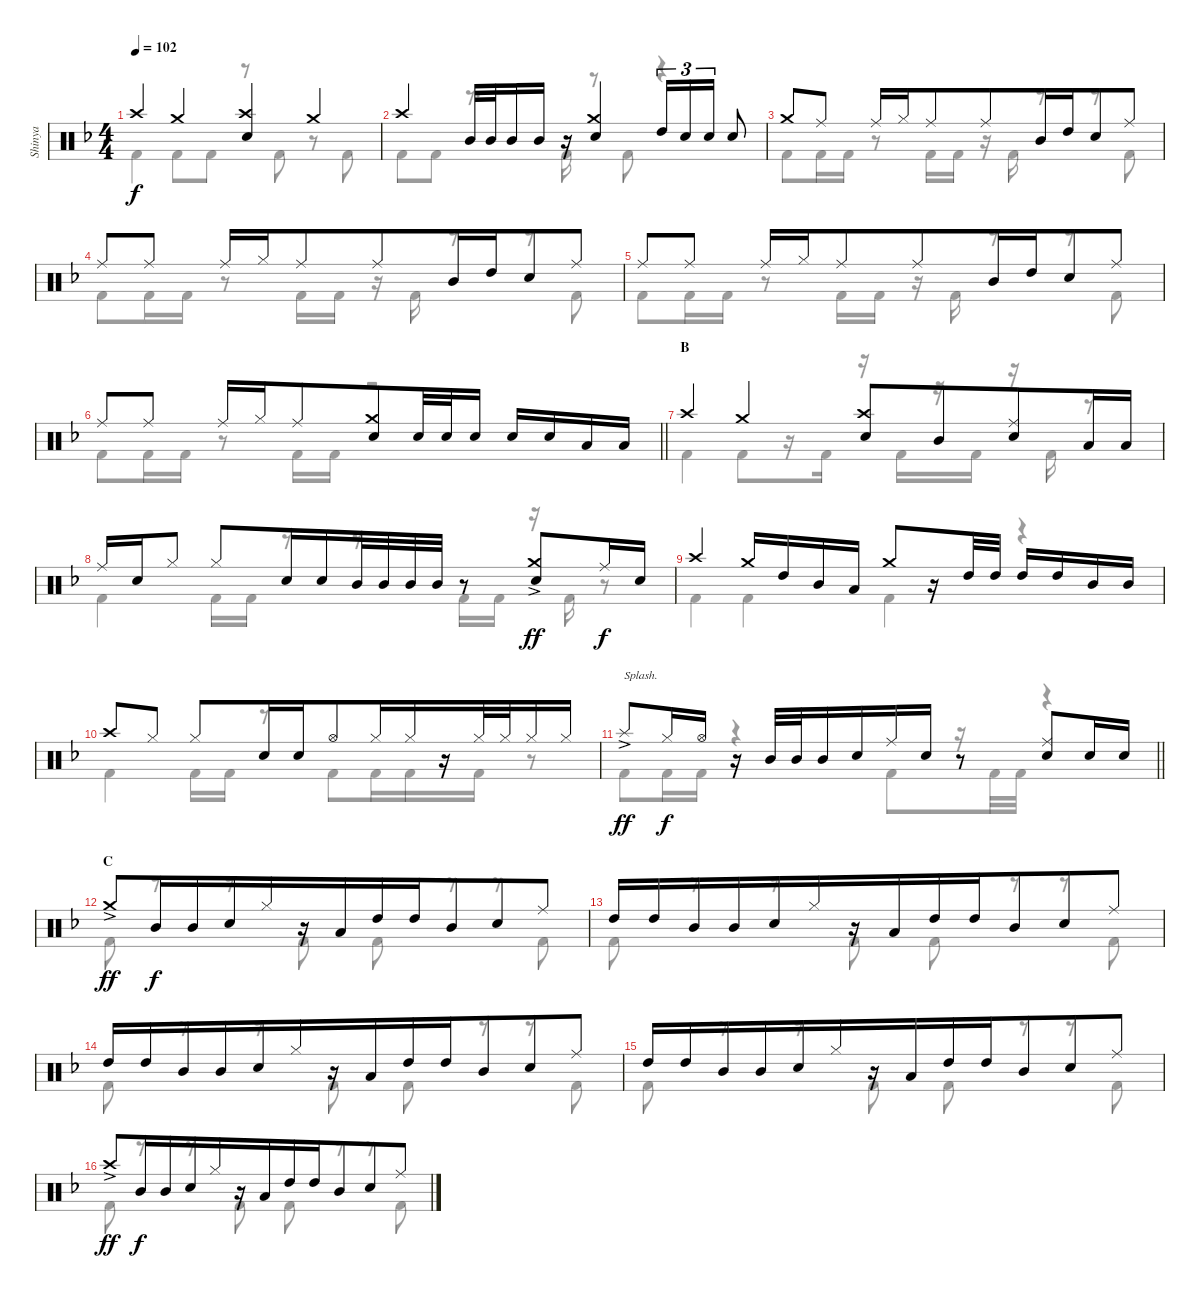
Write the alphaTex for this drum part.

\track ("Shinya" "Shinya") {mute instrument percussion}
\staff {score}
\articulation defaults
\voice
\ts (4 4)
\tempo 102
\clef neutral
\ks f "Crash high (hit)".4{dy f} "Crash medium (hit)".4
("Crash high (hit)" "Snare (hit) 2").4{beam merge} "Crash medium (hit)".4 |
"Crash high (hit)".4 "Mid Tom (hit)".32 "Mid Tom (hit)".32 "Mid Tom (hit)".16 "Mid Tom (hit)".16{beam merge} r.16{beam merge} ("Crash medium (hit)" "Snare (hit) 2").4{beam merge} "High Tom (hit)".16{tu (3 2)} "Snare (hit) 2".16{tu (3 2) beam merge} "Snare (hit) 2".16{tu (3 2)} "Snare (hit) 2".8 |
"Crash medium (hit)".8 "Ride (middle)".8 "Ride (middle)".16 "Hi-Hat (closed)".16{beam merge} "Ride (middle)".8{beam merge} "Ride (middle)".8{beam merge} "Mid Tom (hit)".16 "High Tom (hit)".16{beam merge} "Snare (hit) 2".8 "Ride (middle)".8 |
"Ride (middle)".8 "Ride (middle)".8 "Ride (middle)".16 "Hi-Hat (closed)".16{beam merge} "Ride (middle)".8{beam merge} "Ride (middle)".8{beam merge} "Mid Tom (hit)".16 "High Tom (hit)".16{beam merge} "Snare (hit) 2".8 "Ride (middle)".8 |
"Ride (middle)".8 "Ride (middle)".8 "Ride (middle)".16 "Hi-Hat (closed)".16{beam merge} "Ride (middle)".8{beam merge} "Ride (middle)".8{beam merge} "Mid Tom (hit)".16 "High Tom (hit)".16{beam merge} "Snare (hit) 2".8 "Ride (middle)".8 |
\barLineRight lightlight "Ride (middle)".8 "Ride (middle)".8 "Ride (middle)".16 "Hi-Hat (closed)".16{beam merge} "Ride (middle)".8{beam merge}
("Crash medium (hit)" "Snare (hit) 2").8 "Snare (hit) 2".32{beam merge} "Snare (hit) 2".32 "Snare (hit) 2".16 "Snare (hit) 2".16{beam merge} "Snare (hit) 2".16 "Low Tom (hit)".16 "Low Tom (hit)".16 |
\section ("" "B")
"Crash high (hit)".4 "Crash medium (hit)".4{beam merge} ("Crash high (hit)" "Snare (hit) 2").8 "Mid Tom (hit)".8{beam merge} ("Ride (middle)" "Snare (hit) 2").8 "Low Tom (hit)".16 "Low Tom (hit)".16 |
"Ride (middle)".16 "Snare (hit) 2".16 "Hi-Hat (closed)".8 "Hi-Hat (closed)".8 "Snare (hit) 2".16{beam merge} "Snare (hit) 2".16{beam merge} "Mid Tom (hit)".32 "Mid Tom (hit)".32{beam merge} "Mid Tom (hit)".32 "Mid Tom (hit)".32 r.8 ("Crash medium (hit)"{ac} "Snare (hit) 2").8{dy ff} "Ride (middle)".16{dy f} "Snare (hit) 2".16 |
"Crash high (hit)".4 "Crash medium (hit)".16 "High Tom (hit)".16{beam merge} "Mid Tom (hit)".16{beam merge} "Low Tom (hit)".16 "Crash medium (hit)".8{beam merge} r.16 "High Tom (hit)".32 "High Tom (hit)".32 "High Tom (hit)".16 "High Tom (hit)".16 "Mid Tom (hit)".16{beam merge} "Mid Tom (hit)".16 |
"Crash high (hit)".8 "Hi-Hat (closed)".8 "Hi-Hat (closed)".8{beam merge} "Snare (hit) 2".16{beam merge} "Snare (hit) 2".16{beam merge} "Hi-Hat (open)".8 "Hi-Hat (closed)".16 "Hi-Hat (closed)".16{beam merge} r.16 "Hi-Hat (closed)".32 "Hi-Hat (closed)".32{beam merge} "Hi-Hat (closed)".16 "Hi-Hat (closed)".16 |
\barLineRight lightlight "Splash (hit)"{ac}.8{txt "Splash." dy ff beam merge} "Hi-Hat (closed)".16{dy f} "Hi-Hat (open)".16
r.16 "Mid Tom (hit)".32{beam merge} "Mid Tom (hit)".32{beam merge} "Mid Tom (hit)".16 "Snare (hit) 2".16{beam merge} "Ride (middle)".16{beam merge} "Snare (hit) 2".16 r.8 ("Ride (middle)" "Snare (hit) 2").8{beam merge} "Snare (hit) 2".16{beam merge} "Snare (hit) 2".16 |
\section ("" "C")
"Crash medium (hit)"{ac}.8{dy ff} "Mid Tom (hit)".16{dy f} "Mid Tom (hit)".16{beam merge} "Snare (hit) 2".16{beam merge} "Hi-Hat (closed)".16 r.16 "Low Tom (hit)".16{beam merge} "High Tom (hit)".16{beam merge} "High Tom (hit)".16 "Mid Tom (hit)".8{beam merge} "Snare (hit) 2".8 "Ride (middle)".8 |
"High Tom (hit)".16 "High Tom (hit)".16 "Mid Tom (hit)".16{beam merge} "Mid Tom (hit)".16{beam merge} "Snare (hit) 2".16 "Hi-Hat (closed)".16 r.16 "Low Tom (hit)".16{beam merge} "High Tom (hit)".16{beam merge} "High Tom (hit)".16 "Mid Tom (hit)".8{beam merge} "Snare (hit) 2".8 "Ride (middle)".8 |
"High Tom (hit)".16 "High Tom (hit)".16 "Mid Tom (hit)".16{beam merge} "Mid Tom (hit)".16{beam merge} "Snare (hit) 2".16 "Hi-Hat (closed)".16 r.16 "Low Tom (hit)".16{beam merge} "High Tom (hit)".16{beam merge} "High Tom (hit)".16 "Mid Tom (hit)".8{beam merge} "Snare (hit) 2".8 "Ride (middle)".8 |
"High Tom (hit)".16 "High Tom (hit)".16 "Mid Tom (hit)".16{beam merge} "Mid Tom (hit)".16{beam merge} "Snare (hit) 2".16 "Hi-Hat (closed)".16 r.16 "Low Tom (hit)".16{beam merge} "High Tom (hit)".16{beam merge} "High Tom (hit)".16 "Mid Tom (hit)".8{beam merge} "Snare (hit) 2".8 "Ride (middle)".8 |
"Crash high (hit)"{ac}.8{dy ff} "Mid Tom (hit)".16{dy f} "Mid Tom (hit)".16{beam merge} "Snare (hit) 2".16{beam merge} "Hi-Hat (closed)".16 r.16 "Low Tom (hit)".16{beam merge} "High Tom (hit)".16{beam merge} "High Tom (hit)".16 "Mid Tom (hit)".8{beam merge} "Snare (hit) 2".8 "Ride (middle)".8
\voice
\clef neutral
\ottava regular
\simile none
\ks f "Kick (hit) 2".4{dy f} "Kick (hit) 2".8 "Kick (hit) 2".8
r.8 "Kick (hit) 2".8 r.8 "Kick (hit) 2".8 |
"Kick (hit) 2".8 "Kick (hit) 2".8 r.8{d} "Kick (hit) 2".16 r.8 "Kick (hit) 2".8 r.4 |
"Kick (hit) 2".8{beam merge} "Kick (hit) 2".16 "Kick (hit) 2".16 r.8 "Kick (hit) 2".16 "Kick (hit) 2".16 r.16 "Kick (hit) 2".16 r.8 r.8 "Kick (hit) 2".8 |
"Kick (hit) 2".8{beam merge} "Kick (hit) 2".16 "Kick (hit) 2".16 r.8 "Kick (hit) 2".16 "Kick (hit) 2".16 r.16 "Kick (hit) 2".16 r.8 r.8 "Kick (hit) 2".8 |
"Kick (hit) 2".8{beam merge} "Kick (hit) 2".16 "Kick (hit) 2".16 r.8 "Kick (hit) 2".16 "Kick (hit) 2".16 r.16 "Kick (hit) 2".16 r.8 r.8 "Kick (hit) 2".8 |
\barLineRight lightlight "Kick (hit) 2".8{beam merge} "Kick (hit) 2".16 "Kick (hit) 2".16
r.8 "Kick (hit) 2".16 "Kick (hit) 2".16 r.2 |
"Kick (hit) 2".4 "Kick (hit) 2".8{beam merge} r.16 "Kick (hit) 2".16 r.16{beam merge} "Kick (hit) 2".16{beam merge} r.16 "Kick (hit) 2".16 r.16 "Kick (hit) 2".16 r.8 |
"Kick (hit) 2".4 "Kick (hit) 2".16 "Kick (hit) 2".16 r.8 r.8 "Kick (hit) 2".16 "Kick (hit) 2".16 r.16 "Kick (hit) 2".16 r.8 |
"Kick (hit) 2".4 "Kick (hit) 2".4 "Kick (hit) 2".4 r.4 |
"Kick (hit) 2".4 "Kick (hit) 2".16 "Kick (hit) 2".16 r.8 "Kick (hit) 2".8{beam merge} "Kick (hit) 2".16 "Kick (hit) 2".16{beam merge} r.16 "Kick (hit) 2".16 r.8 |
\barLineRight lightlight "Kick (hit) 2".8{beam merge} "Kick (hit) 2".16 "Kick (hit) 2".16
r.4 "Kick (hit) 2".8 r.16{beam merge} "Kick (hit) 2".32 "Kick (hit) 2".32 r.4 |
"Kick (hit) 2".8 r.8 r.8 "Kick (hit) 2".8 "Kick (hit) 2".8 r.8 r.8 "Kick (hit) 2".8 |
"Kick (hit) 2".8 r.8 r.8 "Kick (hit) 2".8 "Kick (hit) 2".8 r.8 r.8 "Kick (hit) 2".8 |
"Kick (hit) 2".8 r.8 r.8 "Kick (hit) 2".8 "Kick (hit) 2".8 r.8 r.8 "Kick (hit) 2".8 |
"Kick (hit) 2".8 r.8 r.8 "Kick (hit) 2".8 "Kick (hit) 2".8 r.8 r.8 "Kick (hit) 2".8 |
"Kick (hit) 2".8 r.8 r.8 "Kick (hit) 2".8 "Kick (hit) 2".8 r.8 r.8 "Kick (hit) 2".8
